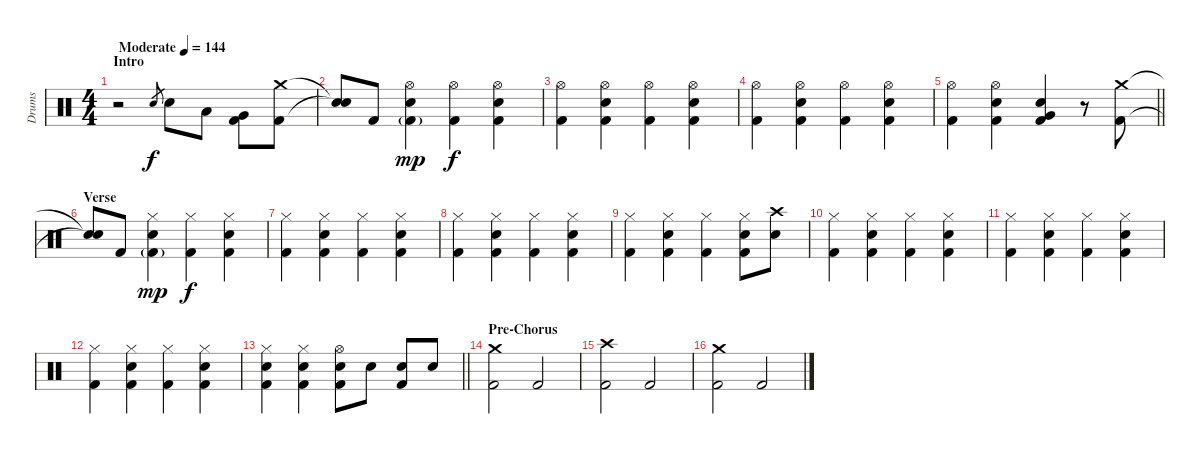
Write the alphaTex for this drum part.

\track ("Drums" "Drums") {instrument percussion}
\staff {score}
\articulation defaults
\ts (4 4)
\section ("" "Intro")
\tempo (144 "Moderate")
\clef neutral
\ks c
r.2{dy f} "Electric Snare (hit)".8{gr} "Electric Snare (hit)".8 "Low Tom (hit)".8 ("Very Low Tom (hit)" "Kick (hit) 2").8 ("Crash medium (hit)" "Kick (hit) 2").8 |
("Snare (hit)"{t} "Snare (hit)"{t}).8 "Kick (hit) 2".8 ("Hi-Hat (open)" "Electric Snare (hit)" "Kick (hit) 2"{g}).4{dy mp} ("Hi-Hat (open)" "Kick (hit) 2").4{dy f} ("Hi-Hat (open)" "Electric Snare (hit)" "Kick (hit) 2").4 |
("Hi-Hat (open)" "Kick (hit) 2").4 ("Hi-Hat (open)" "Electric Snare (hit)" "Kick (hit) 2").4 ("Hi-Hat (open)" "Kick (hit) 2").4 ("Hi-Hat (open)" "Electric Snare (hit)" "Kick (hit) 2").4 |
("Hi-Hat (open)" "Kick (hit) 2").4 ("Hi-Hat (open)" "Electric Snare (hit)" "Kick (hit) 2").4 ("Hi-Hat (open)" "Kick (hit) 2").4 ("Hi-Hat (open)" "Electric Snare (hit)" "Kick (hit) 2").4 |
\barLineRight lightlight
("Hi-Hat (open)" "Kick (hit) 2").4 ("Hi-Hat (open)" "Electric Snare (hit)" "Kick (hit) 2").4 ("Electric Snare (hit)" "Very Low Tom (hit)" "Kick (hit) 2").4 r.8 ("Crash medium (hit)" "Kick (hit) 2").8 |
\section ("" "Verse")
("Snare (hit)"{t} "Snare (hit)"{t}).8 "Kick (hit) 2".8 ("Hi-Hat (closed)" "Electric Snare (hit)" "Kick (hit) 2"{g}).4{dy mp} ("Hi-Hat (closed)" "Kick (hit) 2").4{dy f} ("Hi-Hat (closed)" "Electric Snare (hit)" "Kick (hit) 2").4 |
("Hi-Hat (closed)" "Kick (hit) 2").4 ("Hi-Hat (closed)" "Electric Snare (hit)" "Kick (hit) 2").4 ("Hi-Hat (closed)" "Kick (hit) 2").4 ("Hi-Hat (closed)" "Electric Snare (hit)" "Kick (hit) 2").4 |
("Hi-Hat (closed)" "Kick (hit) 2").4 ("Hi-Hat (closed)" "Electric Snare (hit)" "Kick (hit) 2").4 ("Hi-Hat (closed)" "Kick (hit) 2").4 ("Hi-Hat (closed)" "Electric Snare (hit)" "Kick (hit) 2").4 |
("Hi-Hat (closed)" "Kick (hit) 2").4 ("Hi-Hat (closed)" "Electric Snare (hit)" "Kick (hit) 2").4 ("Hi-Hat (closed)" "Kick (hit) 2").4 ("Hi-Hat (closed)" "Electric Snare (hit)" "Kick (hit) 2").8 ("Crash high (hit)" "Electric Snare (hit)").8 |
("Hi-Hat (closed)" "Kick (hit) 2").4 ("Hi-Hat (closed)" "Electric Snare (hit)" "Kick (hit) 2").4 ("Hi-Hat (closed)" "Kick (hit) 2").4 ("Hi-Hat (closed)" "Electric Snare (hit)" "Kick (hit) 2").4 |
("Hi-Hat (closed)" "Kick (hit) 2").4 ("Hi-Hat (closed)" "Electric Snare (hit)" "Kick (hit) 2").4 ("Hi-Hat (closed)" "Kick (hit) 2").4 ("Hi-Hat (closed)" "Electric Snare (hit)" "Kick (hit) 2").4 |
("Hi-Hat (closed)" "Kick (hit) 2").4 ("Hi-Hat (closed)" "Electric Snare (hit)" "Kick (hit) 2").4 ("Hi-Hat (closed)" "Kick (hit) 2").4 ("Hi-Hat (closed)" "Electric Snare (hit)" "Kick (hit) 2").4 |
\barLineRight lightlight
("Hi-Hat (closed)" "Electric Snare (hit)" "Kick (hit) 2").4 ("Hi-Hat (closed)" "Electric Snare (hit)" "Kick (hit) 2").4 ("Hi-Hat (open)" "Electric Snare (hit)" "Kick (hit) 2").8 "Electric Snare (hit)".8 ("Electric Snare (hit)" "Kick (hit) 2").8 "Electric Snare (hit)".8 |
\section ("" "Pre-Chorus")
("Crash medium (hit)" "Kick (hit) 2").2 "Kick (hit) 2".2 |
("Crash high (hit)" "Kick (hit) 2").2 "Kick (hit) 2".2 |
("Crash medium (hit)" "Kick (hit) 2").2 "Kick (hit) 2".2
